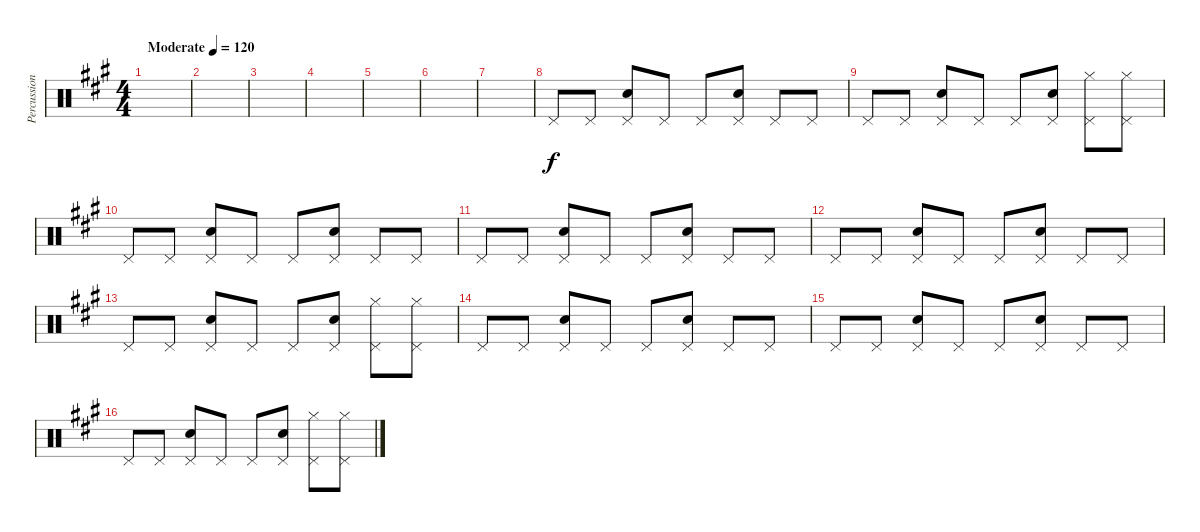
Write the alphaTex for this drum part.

\track ("Percussion" "Percussion") {instrument percussion}
\staff {score}
\articulation defaults
\ts (4 4)
\tempo (120 "Moderate")
\clef neutral
\ks a
|
|
|
|
|
|
|
"Pedal Hi-Hat (hit)".8 "Pedal Hi-Hat (hit)".8 ("Snare (hit) 2" "Pedal Hi-Hat (hit)").8 "Pedal Hi-Hat (hit)".8 "Pedal Hi-Hat (hit)".8 ("Snare (hit) 2" "Pedal Hi-Hat (hit)").8 "Pedal Hi-Hat (hit)".8 "Pedal Hi-Hat (hit)".8 |
"Pedal Hi-Hat (hit)".8 "Pedal Hi-Hat (hit)".8 ("Snare (hit) 2" "Pedal Hi-Hat (hit)").8 "Pedal Hi-Hat (hit)".8 "Pedal Hi-Hat (hit)".8 ("Snare (hit) 2" "Pedal Hi-Hat (hit)").8 ("Hi-Hat (closed)" "Pedal Hi-Hat (hit)").8 ("Hi-Hat (closed)" "Pedal Hi-Hat (hit)").8 |
"Pedal Hi-Hat (hit)".8 "Pedal Hi-Hat (hit)".8 ("Snare (hit) 2" "Pedal Hi-Hat (hit)").8 "Pedal Hi-Hat (hit)".8 "Pedal Hi-Hat (hit)".8 ("Snare (hit) 2" "Pedal Hi-Hat (hit)").8 "Pedal Hi-Hat (hit)".8 "Pedal Hi-Hat (hit)".8 |
"Pedal Hi-Hat (hit)".8 "Pedal Hi-Hat (hit)".8 ("Snare (hit) 2" "Pedal Hi-Hat (hit)").8 "Pedal Hi-Hat (hit)".8 "Pedal Hi-Hat (hit)".8 ("Snare (hit) 2" "Pedal Hi-Hat (hit)").8 "Pedal Hi-Hat (hit)".8 "Pedal Hi-Hat (hit)".8 |
"Pedal Hi-Hat (hit)".8 "Pedal Hi-Hat (hit)".8 ("Snare (hit) 2" "Pedal Hi-Hat (hit)").8 "Pedal Hi-Hat (hit)".8 "Pedal Hi-Hat (hit)".8 ("Snare (hit) 2" "Pedal Hi-Hat (hit)").8 "Pedal Hi-Hat (hit)".8 "Pedal Hi-Hat (hit)".8 |
"Pedal Hi-Hat (hit)".8 "Pedal Hi-Hat (hit)".8 ("Snare (hit) 2" "Pedal Hi-Hat (hit)").8 "Pedal Hi-Hat (hit)".8 "Pedal Hi-Hat (hit)".8 ("Snare (hit) 2" "Pedal Hi-Hat (hit)").8 ("Hi-Hat (closed)" "Pedal Hi-Hat (hit)").8 ("Hi-Hat (closed)" "Pedal Hi-Hat (hit)").8 |
"Pedal Hi-Hat (hit)".8 "Pedal Hi-Hat (hit)".8 ("Snare (hit) 2" "Pedal Hi-Hat (hit)").8 "Pedal Hi-Hat (hit)".8 "Pedal Hi-Hat (hit)".8 ("Snare (hit) 2" "Pedal Hi-Hat (hit)").8 "Pedal Hi-Hat (hit)".8 "Pedal Hi-Hat (hit)".8 |
"Pedal Hi-Hat (hit)".8 "Pedal Hi-Hat (hit)".8 ("Snare (hit) 2" "Pedal Hi-Hat (hit)").8 "Pedal Hi-Hat (hit)".8 "Pedal Hi-Hat (hit)".8 ("Snare (hit) 2" "Pedal Hi-Hat (hit)").8 "Pedal Hi-Hat (hit)".8 "Pedal Hi-Hat (hit)".8 |
"Pedal Hi-Hat (hit)".8 "Pedal Hi-Hat (hit)".8 ("Snare (hit) 2" "Pedal Hi-Hat (hit)").8 "Pedal Hi-Hat (hit)".8 "Pedal Hi-Hat (hit)".8 ("Snare (hit) 2" "Pedal Hi-Hat (hit)").8 ("Hi-Hat (closed)" "Pedal Hi-Hat (hit)").8 ("Hi-Hat (closed)" "Pedal Hi-Hat (hit)").8
